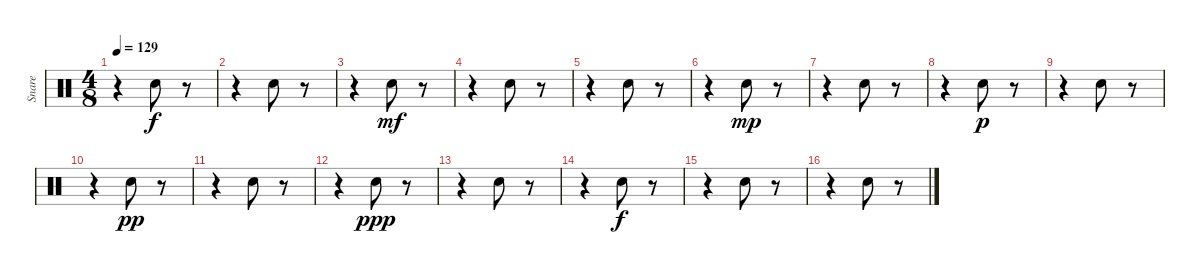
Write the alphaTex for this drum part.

\track ("Snare" "Snare") {instrument percussion}
\staff {score}
\articulation defaults
\ts (4 8)
\tempo 129
\clef neutral
\ks c
r.4{dy f} "Snare (hit) 2".8 r.8 |
r.4 "Snare (hit) 2".8 r.8 |
r.4 "Snare (hit) 2".8{dy mf} r.8 |
r.4 "Snare (hit) 2".8 r.8 |
r.4 "Snare (hit) 2".8 r.8 |
r.4 "Snare (hit) 2".8{dy mp} r.8 |
r.4 "Snare (hit) 2".8 r.8 |
r.4 "Snare (hit) 2".8{dy p} r.8 |
r.4 "Snare (hit) 2".8 r.8 |
r.4 "Snare (hit) 2".8{dy pp} r.8 |
r.4 "Snare (hit) 2".8 r.8 |
r.4 "Snare (hit) 2".8{dy ppp} r.8 |
r.4 "Snare (hit) 2".8 r.8 |
r.4 "Snare (hit) 2".8{dy f} r.8 |
r.4 "Snare (hit) 2".8 r.8 |
r.4 "Snare (hit) 2".8 r.8
